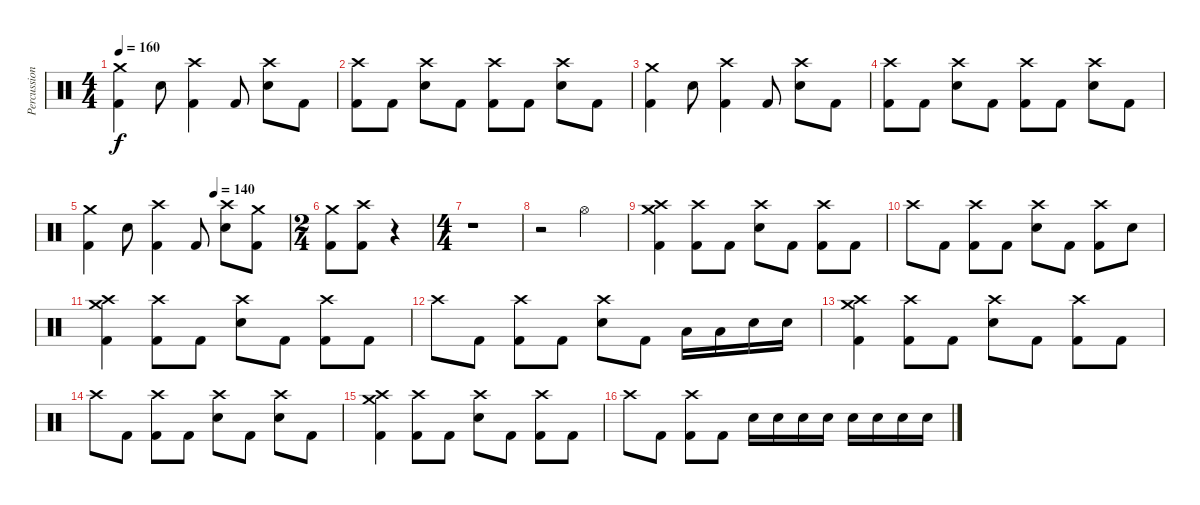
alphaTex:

\track ("Percussion" "Percussion") {instrument percussion}
\staff {score}
\articulation defaults
\ts (4 4)
\tempo 160
\clef neutral
\ks c
("Crash medium (hit)" "Kick (hit) 2").4{dy f} "Electric Snare (hit)".8 ("Crash high (hit)" "Kick (hit) 2").4 "Kick (hit) 2".8 ("Crash high (hit)" "Electric Snare (hit)").8 "Kick (hit) 2".8 |
("Crash high (hit)" "Kick (hit) 2").8 "Kick (hit) 2".8 ("Crash high (hit)" "Electric Snare (hit)").8 "Kick (hit) 2".8 ("Crash high (hit)" "Kick (hit) 2").8 "Kick (hit) 2".8 ("Crash high (hit)" "Electric Snare (hit)").8 "Kick (hit) 2".8 |
("Crash medium (hit)" "Kick (hit) 2").4 "Electric Snare (hit)".8 ("Crash high (hit)" "Kick (hit) 2").4 "Kick (hit) 2".8 ("Crash high (hit)" "Electric Snare (hit)").8 "Kick (hit) 2".8 |
("Crash high (hit)" "Kick (hit) 2").8 "Kick (hit) 2".8 ("Crash high (hit)" "Electric Snare (hit)").8 "Kick (hit) 2".8 ("Crash high (hit)" "Kick (hit) 2").8 "Kick (hit) 2".8 ("Crash high (hit)" "Electric Snare (hit)").8 "Kick (hit) 2".8 |
\tempo (140 0.625)
("Crash medium (hit)" "Kick (hit) 2").4 "Electric Snare (hit)".8 ("Crash high (hit)" "Kick (hit) 2").4 "Kick (hit) 2".8 ("Crash high (hit)" "Electric Snare (hit)").8 ("Crash medium (hit)" "Kick (hit) 2").8 |
\ts (2 4)
("Crash medium (hit)" "Kick (hit) 2").8 ("Crash high (hit)" "Kick (hit) 2").8 r.4 |
\ts (4 4)
r.1 |
r.2 "Hi-Hat (open)".2 |
("Crash medium (hit)" "Crash high (hit)" "Kick (hit) 2").4 ("Crash high (hit)" "Kick (hit) 2").8 "Kick (hit) 2".8 ("Crash high (hit)" "Electric Snare (hit)").8 "Kick (hit) 2".8 ("Crash high (hit)" "Kick (hit) 2").8 "Kick (hit) 2".8 |
"Crash high (hit)".8 "Kick (hit) 2".8 ("Crash high (hit)" "Kick (hit) 2").8 "Kick (hit) 2".8 ("Crash high (hit)" "Electric Snare (hit)").8 "Kick (hit) 2".8 ("Crash high (hit)" "Kick (hit) 2").8 "Electric Snare (hit)".8 |
("Crash medium (hit)" "Crash high (hit)" "Kick (hit) 2").4 ("Crash high (hit)" "Kick (hit) 2").8 "Kick (hit) 2".8 ("Crash high (hit)" "Electric Snare (hit)").8 "Kick (hit) 2".8 ("Crash high (hit)" "Kick (hit) 2").8 "Kick (hit) 2".8 |
"Crash high (hit)".8 "Kick (hit) 2".8 ("Crash high (hit)" "Kick (hit) 2").8 "Kick (hit) 2".8 ("Crash high (hit)" "Electric Snare (hit)").8 "Kick (hit) 2".8 "Low Tom (hit)".16 "Low Tom (hit)".16 "Electric Snare (hit)".16 "Electric Snare (hit)".16 |
("Crash medium (hit)" "Crash high (hit)" "Kick (hit) 2").4 ("Crash high (hit)" "Kick (hit) 2").8 "Kick (hit) 2".8 ("Crash high (hit)" "Electric Snare (hit)").8 "Kick (hit) 2".8 ("Crash high (hit)" "Kick (hit) 2").8 "Kick (hit) 2".8 |
"Crash high (hit)".8 "Kick (hit) 2".8 ("Crash high (hit)" "Kick (hit) 2").8 "Kick (hit) 2".8 ("Crash high (hit)" "Electric Snare (hit)").8 "Kick (hit) 2".8 ("Crash high (hit)" "Electric Snare (hit)").8 "Kick (hit) 2".8 |
("Crash medium (hit)" "Crash high (hit)" "Kick (hit) 2").4 ("Crash high (hit)" "Kick (hit) 2").8 "Kick (hit) 2".8 ("Crash high (hit)" "Electric Snare (hit)").8 "Kick (hit) 2".8 ("Crash high (hit)" "Kick (hit) 2").8 "Kick (hit) 2".8 |
"Crash high (hit)".8 "Kick (hit) 2".8 ("Crash high (hit)" "Kick (hit) 2").8 "Kick (hit) 2".8 "Electric Snare (hit)".16 "Electric Snare (hit)".16 "Electric Snare (hit)".16 "Electric Snare (hit)".16 "Electric Snare (hit)".16 "Electric Snare (hit)".16 "Electric Snare (hit)".16 "Electric Snare (hit)".16
